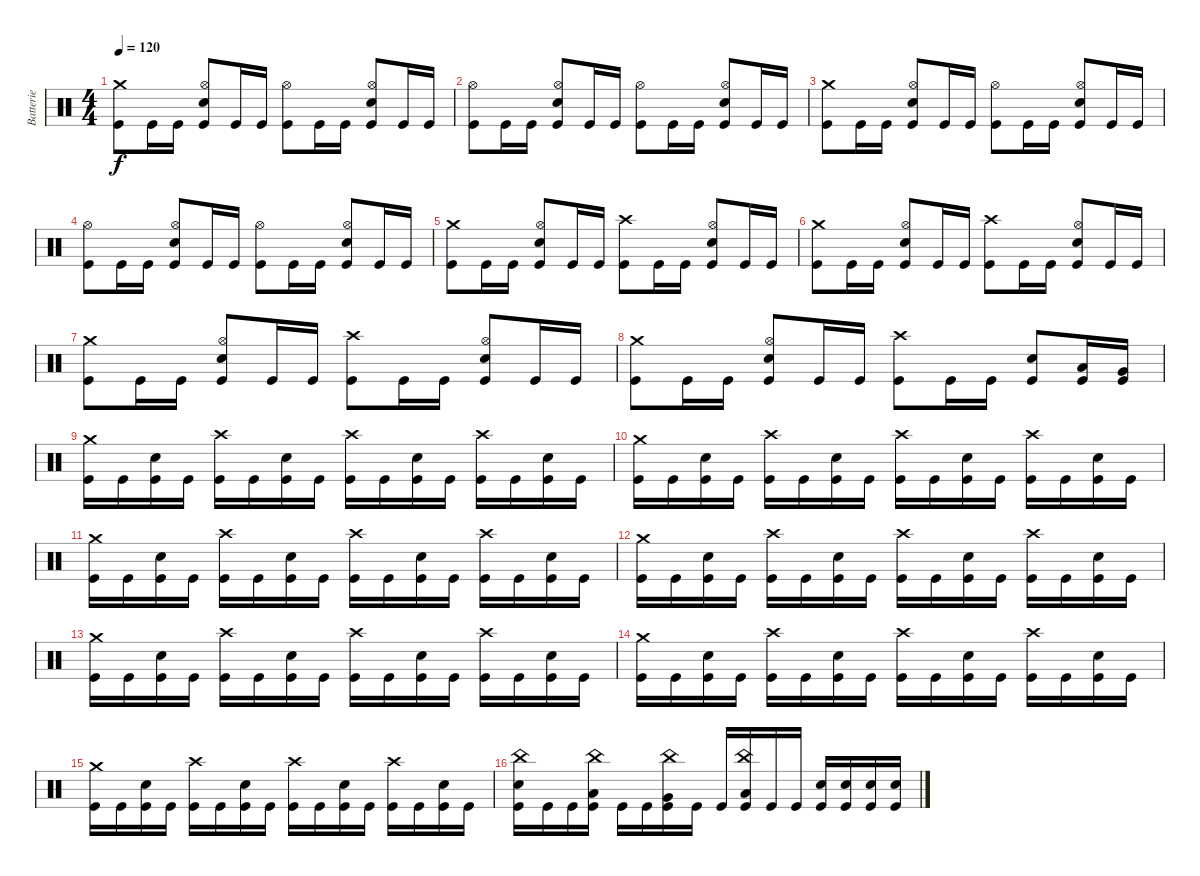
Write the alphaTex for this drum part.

\track ("Batterie" "Batterie") {instrument percussion}
\staff {score}
\articulation defaults
\ts (4 4)
\tempo 120
\clef neutral
\ks c
("Crash medium (hit)" "Kick (hit)").8{dy f} "Kick (hit)".16 "Kick (hit)".16 ("Hi-Hat (open)" "Snare (hit) 2" "Kick (hit)").8 "Kick (hit)".16 "Kick (hit)".16 ("Hi-Hat (open)" "Kick (hit)").8 "Kick (hit)".16 "Kick (hit)".16 ("Hi-Hat (open)" "Snare (hit) 2" "Kick (hit)").8 "Kick (hit)".16 "Kick (hit)".16 |
("Hi-Hat (open)" "Kick (hit)").8 "Kick (hit)".16 "Kick (hit)".16 ("Hi-Hat (open)" "Snare (hit) 2" "Kick (hit)").8 "Kick (hit)".16 "Kick (hit)".16 ("Hi-Hat (open)" "Kick (hit)").8 "Kick (hit)".16 "Kick (hit)".16 ("Hi-Hat (open)" "Snare (hit) 2" "Kick (hit)").8 "Kick (hit)".16 "Kick (hit)".16 |
("Crash medium (hit)" "Kick (hit)").8 "Kick (hit)".16 "Kick (hit)".16 ("Hi-Hat (open)" "Snare (hit) 2" "Kick (hit)").8 "Kick (hit)".16 "Kick (hit)".16 ("Hi-Hat (open)" "Kick (hit)").8 "Kick (hit)".16 "Kick (hit)".16 ("Hi-Hat (open)" "Snare (hit) 2" "Kick (hit)").8 "Kick (hit)".16 "Kick (hit)".16 |
("Hi-Hat (open)" "Kick (hit)").8 "Kick (hit)".16 "Kick (hit)".16 ("Hi-Hat (open)" "Snare (hit) 2" "Kick (hit)").8 "Kick (hit)".16 "Kick (hit)".16 ("Hi-Hat (open)" "Kick (hit)").8 "Kick (hit)".16 "Kick (hit)".16 ("Hi-Hat (open)" "Snare (hit) 2" "Kick (hit)").8 "Kick (hit)".16 "Kick (hit)".16 |
("Crash medium (hit)" "Kick (hit)").8 "Kick (hit)".16 "Kick (hit)".16 ("Hi-Hat (open)" "Snare (hit) 2" "Kick (hit)").8 "Kick (hit)".16 "Kick (hit)".16 ("Crash high (hit)" "Kick (hit)").8 "Kick (hit)".16 "Kick (hit)".16 ("Hi-Hat (open)" "Snare (hit) 2" "Kick (hit)").8 "Kick (hit)".16 "Kick (hit)".16 |
("Crash medium (hit)" "Kick (hit)").8 "Kick (hit)".16 "Kick (hit)".16 ("Hi-Hat (open)" "Snare (hit) 2" "Kick (hit)").8 "Kick (hit)".16 "Kick (hit)".16 ("Crash high (hit)" "Kick (hit)").8 "Kick (hit)".16 "Kick (hit)".16 ("Hi-Hat (open)" "Snare (hit) 2" "Kick (hit)").8 "Kick (hit)".16 "Kick (hit)".16 |
("Crash medium (hit)" "Kick (hit)").8 "Kick (hit)".16 "Kick (hit)".16 ("Hi-Hat (open)" "Snare (hit) 2" "Kick (hit)").8 "Kick (hit)".16 "Kick (hit)".16 ("Crash high (hit)" "Kick (hit)").8 "Kick (hit)".16 "Kick (hit)".16 ("Hi-Hat (open)" "Snare (hit) 2" "Kick (hit)").8 "Kick (hit)".16 "Kick (hit)".16 |
("Crash medium (hit)" "Kick (hit)").8 "Kick (hit)".16 "Kick (hit)".16 ("Hi-Hat (open)" "Snare (hit) 2" "Kick (hit)").8 "Kick (hit)".16 "Kick (hit)".16 ("Crash high (hit)" "Kick (hit)").8 "Kick (hit)".16 "Kick (hit)".16 ("Snare (hit) 2" "Kick (hit)").8 ("Low Tom (hit)" "Kick (hit)").16 ("Very Low Tom (hit)" "Kick (hit)").16 |
("Crash medium (hit)" "Kick (hit)").16 "Kick (hit)".16 ("Snare (hit) 2" "Kick (hit)").16 "Kick (hit)".16 ("Crash high (hit)" "Kick (hit)").16 "Kick (hit)".16 ("Snare (hit) 2" "Kick (hit)").16 "Kick (hit)".16 ("Crash high (hit)" "Kick (hit)").16 "Kick (hit)".16 ("Snare (hit) 2" "Kick (hit)").16 "Kick (hit)".16 ("Crash high (hit)" "Kick (hit)").16 "Kick (hit)".16 ("Snare (hit) 2" "Kick (hit)").16 "Kick (hit)".16 |
("Crash medium (hit)" "Kick (hit)").16 "Kick (hit)".16 ("Snare (hit) 2" "Kick (hit)").16 "Kick (hit)".16 ("Crash high (hit)" "Kick (hit)").16 "Kick (hit)".16 ("Snare (hit) 2" "Kick (hit)").16 "Kick (hit)".16 ("Crash high (hit)" "Kick (hit)").16 "Kick (hit)".16 ("Snare (hit) 2" "Kick (hit)").16 "Kick (hit)".16 ("Crash high (hit)" "Kick (hit)").16 "Kick (hit)".16 ("Snare (hit) 2" "Kick (hit)").16 "Kick (hit)".16 |
("Crash medium (hit)" "Kick (hit)").16 "Kick (hit)".16 ("Snare (hit) 2" "Kick (hit)").16 "Kick (hit)".16 ("Crash high (hit)" "Kick (hit)").16 "Kick (hit)".16 ("Snare (hit) 2" "Kick (hit)").16 "Kick (hit)".16 ("Crash high (hit)" "Kick (hit)").16 "Kick (hit)".16 ("Snare (hit) 2" "Kick (hit)").16 "Kick (hit)".16 ("Crash high (hit)" "Kick (hit)").16 "Kick (hit)".16 ("Snare (hit) 2" "Kick (hit)").16 "Kick (hit)".16 |
("Crash medium (hit)" "Kick (hit)").16 "Kick (hit)".16 ("Snare (hit) 2" "Kick (hit)").16 "Kick (hit)".16 ("Crash high (hit)" "Kick (hit)").16 "Kick (hit)".16 ("Snare (hit) 2" "Kick (hit)").16 "Kick (hit)".16 ("Crash high (hit)" "Kick (hit)").16 "Kick (hit)".16 ("Snare (hit) 2" "Kick (hit)").16 "Kick (hit)".16 ("Crash high (hit)" "Kick (hit)").16 "Kick (hit)".16 ("Snare (hit) 2" "Kick (hit)").16 "Kick (hit)".16 |
("Crash medium (hit)" "Kick (hit)").16 "Kick (hit)".16 ("Snare (hit) 2" "Kick (hit)").16 "Kick (hit)".16 ("Crash high (hit)" "Kick (hit)").16 "Kick (hit)".16 ("Snare (hit) 2" "Kick (hit)").16 "Kick (hit)".16 ("Crash high (hit)" "Kick (hit)").16 "Kick (hit)".16 ("Snare (hit) 2" "Kick (hit)").16 "Kick (hit)".16 ("Crash high (hit)" "Kick (hit)").16 "Kick (hit)".16 ("Snare (hit) 2" "Kick (hit)").16 "Kick (hit)".16 |
("Crash medium (hit)" "Kick (hit)").16 "Kick (hit)".16 ("Snare (hit) 2" "Kick (hit)").16 "Kick (hit)".16 ("Crash high (hit)" "Kick (hit)").16 "Kick (hit)".16 ("Snare (hit) 2" "Kick (hit)").16 "Kick (hit)".16 ("Crash high (hit)" "Kick (hit)").16 "Kick (hit)".16 ("Snare (hit) 2" "Kick (hit)").16 "Kick (hit)".16 ("Crash high (hit)" "Kick (hit)").16 "Kick (hit)".16 ("Snare (hit) 2" "Kick (hit)").16 "Kick (hit)".16 |
("Crash medium (hit)" "Kick (hit)").16 "Kick (hit)".16 ("Snare (hit) 2" "Kick (hit)").16 "Kick (hit)".16 ("Crash high (hit)" "Kick (hit)").16 "Kick (hit)".16 ("Snare (hit) 2" "Kick (hit)").16 "Kick (hit)".16 ("Crash high (hit)" "Kick (hit)").16 "Kick (hit)".16 ("Snare (hit) 2" "Kick (hit)").16 "Kick (hit)".16 ("Crash high (hit)" "Kick (hit)").16 "Kick (hit)".16 ("Snare (hit) 2" "Kick (hit)").16 "Kick (hit)".16 |
("China (hit)" "Snare (hit) 2" "Kick (hit)").16 "Kick (hit)".16 "Kick (hit)".16 ("China (hit)" "Low Tom (hit)" "Kick (hit)").16 "Kick (hit)".16 "Kick (hit)".16 ("China (hit)" "Very Low Tom (hit)" "Kick (hit)").16 "Kick (hit)".16 "Kick (hit)".16 ("China (hit)" "Low Floor Tom (hit)" "Kick (hit)").16 "Kick (hit)".16 "Kick (hit)".16 ("Snare (hit) 2" "Kick (hit)").16 ("Snare (hit) 2" "Kick (hit)").16 ("Snare (hit) 2" "Kick (hit)").16 ("Snare (hit) 2" "Kick (hit)").16
